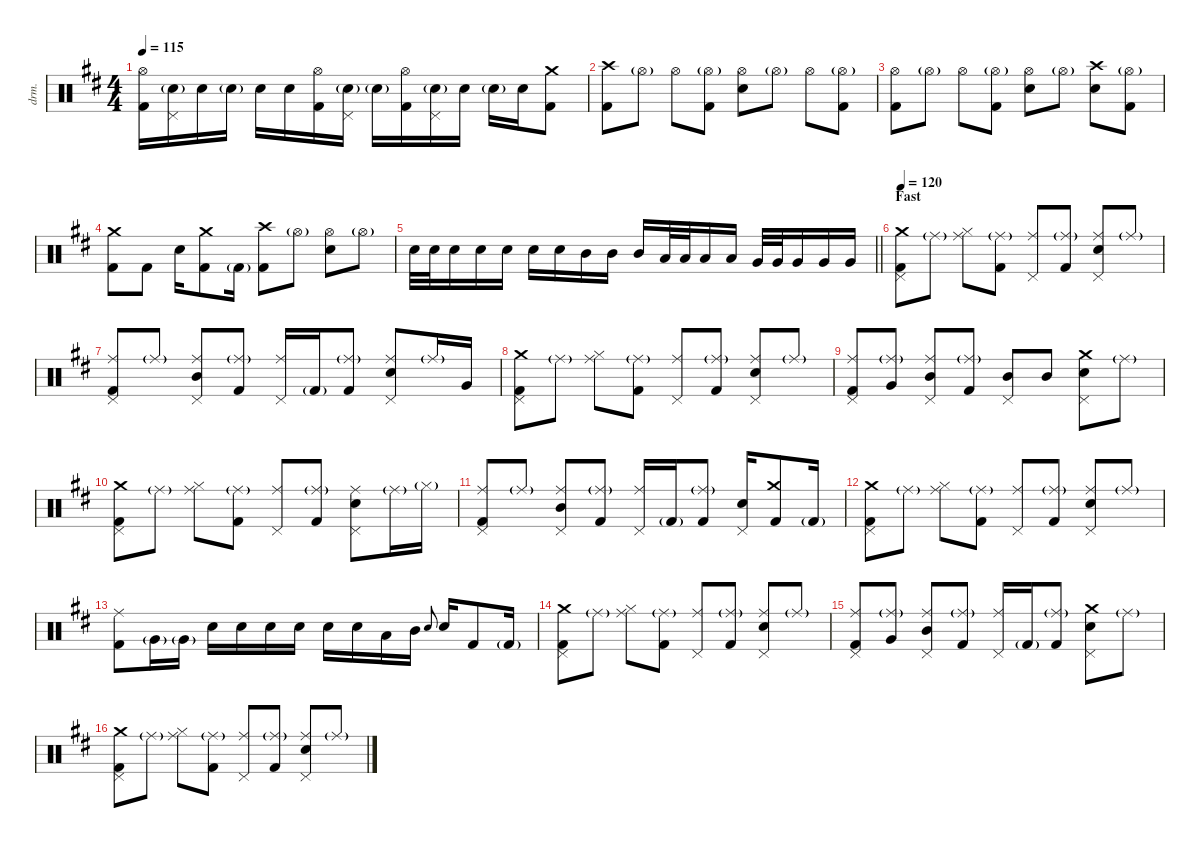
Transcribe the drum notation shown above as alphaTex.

\defaultSystemsLayout 4
\hideDynamics
\bracketExtendMode nobrackets
\track ("Atma Anur" "drm.") {solo instrument percussion}
\staff {score}
\articulation defaults
\ts (4 4)
\tempo 115
\clef neutral
\ks bminor
("Hi-Hat (open)"{acc forcenatural} "Kick (hit) 2"{acc forcenatural}).16{dy fff beam Down} ("Snare (hit) 2"{g acc forcenatural} "Pedal Hi-Hat (hit)"{acc forcenatural}).16{beam Down} "Snare (hit) 2"{acc forcenatural}.16{beam Down} "Snare (hit) 2"{g acc forcenatural}.16{dy ff beam Down} "Snare (hit) 2"{acc forcenatural}.16{dy fff beam Down} "Snare (hit) 2"{acc forcenatural}.16{beam Down} ("Hi-Hat (open)"{acc forcenatural} "Kick (hit) 2"{acc forcenatural}).16{beam Down} ("Snare (hit) 2"{g acc forcenatural} "Pedal Hi-Hat (hit)"{acc forcenatural}).16{beam Down} "Snare (hit) 2"{g acc forcenatural}.16{dy ff beam Down} ("Hi-Hat (open)"{acc forcenatural} "Kick (hit) 2"{acc forcenatural}).16{dy fff beam Down} ("Snare (hit) 2"{g acc forcenatural} "Pedal Hi-Hat (hit)"{acc forcenatural}).16{beam Down} "Snare (hit) 2"{acc forcenatural}.16{beam Down} "Snare (hit) 2"{g acc forcenatural}.16{dy ff beam Down} "Snare (hit) 2"{acc forcenatural}.16{dy fff beam Down} ("Crash medium (hit)"{acc forcenatural} "Kick (hit) 2"{acc forcenatural}).8{beam Down} |
("Crash high (hit)"{acc forcenatural} "Kick (hit) 2"{acc forcenatural}).8{beam Down} "Hi-Hat (open)"{g acc forcenatural}.8{dy ff beam Down} "Hi-Hat (open)"{acc forcenatural}.8{dy fff beam Down} ("Hi-Hat (open)"{g acc forcenatural} "Kick (hit) 2"{acc forcenatural}).8{beam Down} ("Hi-Hat (open)"{acc forcenatural} "Snare (hit) 2"{acc forcenatural}).8{beam Down} "Hi-Hat (open)"{g acc forcenatural}.8{dy ff beam Down} "Hi-Hat (open)"{acc forcenatural}.8{dy fff beam Down} ("Hi-Hat (open)"{g acc forcenatural} "Kick (hit) 2"{acc forcenatural}).8{beam Down} |
("Hi-Hat (open)"{acc forcenatural} "Kick (hit) 2"{acc forcenatural}).8{beam Down} "Hi-Hat (open)"{g acc forcenatural}.8{dy ff beam Down} "Hi-Hat (open)"{acc forcenatural}.8{dy fff beam Down} ("Hi-Hat (open)"{g acc forcenatural} "Kick (hit) 2"{acc forcenatural}).8{beam Down} ("Hi-Hat (open)"{acc forcenatural} "Snare (hit) 2"{acc forcenatural}).8{beam Down} "Hi-Hat (open)"{g acc forcenatural}.8{dy ff beam Down} ("Crash high (hit)"{acc forcenatural} "Snare (hit) 2"{acc forcenatural}).8{dy fff beam Down} ("Hi-Hat (open)"{g acc forcenatural} "Kick (hit) 2"{acc forcenatural}).8{beam Down} |
("Crash medium (hit)"{acc forcenatural} "Kick (hit) 2"{acc forcenatural}).8{beam Down} "Kick (hit) 2"{acc forcenatural}.8{beam Down} "Snare (hit) 2"{acc forcenatural}.16{beam Down} ("Crash medium (hit)"{acc forcenatural} "Kick (hit) 2"{acc forcenatural}).8{beam Down} "Kick (hit) 2"{g acc forcenatural}.16{dy ff beam Down} ("Crash high (hit)"{acc forcenatural} "Kick (hit) 2"{acc forcenatural}).8{dy fff beam Down} "Hi-Hat (open)"{g acc forcenatural}.8{dy ff beam Down} ("Hi-Hat (open)"{acc forcenatural} "Snare (hit) 2"{acc forcenatural}).8{dy fff beam Down} "Hi-Hat (open)"{g acc forcenatural}.8{dy ff beam Down} |
\barLineRight lightlight "Snare (hit) 2"{acc forcenatural}.32{dy fff beam Down} "Snare (hit) 2"{acc forcenatural}.32{beam Down} "Snare (hit) 2"{acc forcenatural}.16{beam Down} "Snare (hit) 2"{acc forcenatural}.16{beam Down} "Snare (hit) 2"{acc forcenatural}.16{beam Down} "Snare (hit) 2"{acc forcenatural}.16{beam Down} "Snare (hit) 2"{acc forcenatural}.16{beam Down} "Mid Tom (hit)"{acc forcenatural}.16{beam Down} "Mid Tom (hit)"{acc forcenatural}.16{beam Down} "Mid Tom (hit)"{acc forcenatural}.16{beam Up} "Low Tom (hit)"{acc forcenatural}.32{beam Up} "Low Tom (hit)"{acc forcenatural}.32{beam Up} "Low Tom (hit)"{acc forcenatural}.16{beam Up} "Low Tom (hit)"{acc forcenatural}.16{beam Up} "Very Low Tom (hit)"{acc forcenatural}.32{beam Up} "Very Low Tom (hit)"{acc forcenatural}.32{beam Up} "Very Low Tom (hit)"{acc forcenatural}.16{beam Up} "Very Low Tom (hit)"{acc forcenatural}.16{beam Up} "Very Low Tom (hit)"{acc forcenatural}.16{beam Up}
|
\section ("" "Fast")
\tempo 120
("Crash medium (hit)"{acc forcenatural} "Pedal Hi-Hat (hit)"{acc forcenatural} "Kick (hit) 2"{acc forcenatural}).8{beam Down} "Ride (middle)"{g acc forcenatural}.8{dy ff beam Down} ("Ride (middle)"{acc forcenatural} "Hi-Hat (closed)"{acc forcenatural}).8{dy fff beam Down} ("Ride (middle)"{g acc forcenatural} "Kick (hit) 2"{acc forcenatural}).8{beam Down} ("Ride (middle)"{acc forcenatural} "Pedal Hi-Hat (hit)"{acc forcenatural}).8{beam Up} ("Ride (middle)"{g acc forcenatural} "Kick (hit) 2"{acc forcenatural}).8{beam Up} ("Ride (middle)"{acc forcenatural} "Snare (hit) 2"{acc forcenatural} "Pedal Hi-Hat (hit)"{acc forcenatural}).8{beam Up} "Ride (middle)"{g acc forcenatural}.8{dy ff beam Up} |
("Ride (middle)"{acc forcenatural} "Pedal Hi-Hat (hit)"{acc forcenatural} "Kick (hit) 2"{acc forcenatural}).8{dy fff beam Up} "Ride (middle)"{g acc forcenatural}.8{dy ff beam Up} ("Ride (middle)"{acc forcenatural} "Mid Tom (hit)"{acc forcenatural} "Pedal Hi-Hat (hit)"{acc forcenatural}).8{dy fff beam Up} ("Ride (middle)"{g acc forcenatural} "Kick (hit) 2"{acc forcenatural}).8{beam Up} ("Ride (middle)"{acc forcenatural} "Pedal Hi-Hat (hit)"{acc forcenatural}).16{beam Up} "Kick (hit) 2"{g acc forcenatural}.16{dy ff beam Up} ("Ride (middle)"{g acc forcenatural} "Kick (hit) 2"{acc forcenatural}).8{dy fff beam Up} ("Ride (middle)"{acc forcenatural} "Snare (hit) 2"{acc forcenatural} "Pedal Hi-Hat (hit)"{acc forcenatural}).8{beam Up} "Ride (middle)"{g acc forcenatural}.16{dy ff beam Up} "Very Low Tom (hit)"{acc forcenatural}.16{dy fff beam Up} |
("Crash medium (hit)"{acc forcenatural} "Pedal Hi-Hat (hit)"{acc forcenatural} "Kick (hit) 2"{acc forcenatural}).8{beam Down} "Ride (middle)"{g acc forcenatural}.8{dy ff beam Down} ("Ride (middle)"{acc forcenatural} "Hi-Hat (closed)"{acc forcenatural}).8{dy fff beam Down} ("Ride (middle)"{g acc forcenatural} "Kick (hit) 2"{acc forcenatural}).8{beam Down} ("Ride (middle)"{acc forcenatural} "Pedal Hi-Hat (hit)"{acc forcenatural}).8{beam Up} ("Ride (middle)"{g acc forcenatural} "Kick (hit) 2"{acc forcenatural}).8{beam Up} ("Ride (middle)"{acc forcenatural} "Snare (hit) 2"{acc forcenatural} "Pedal Hi-Hat (hit)"{acc forcenatural}).8{beam Up} "Ride (middle)"{g acc forcenatural}.8{dy ff beam Up} |
("Ride (middle)"{acc forcenatural} "Pedal Hi-Hat (hit)"{acc forcenatural} "Kick (hit) 2"{acc forcenatural}).8{dy fff beam Up} ("Ride (middle)"{g acc forcenatural} "Very Low Tom (hit)"{acc forcenatural}).8{beam Up} ("Ride (middle)"{acc forcenatural} "Mid Tom (hit)"{acc forcenatural} "Pedal Hi-Hat (hit)"{acc forcenatural}).8{beam Up} ("Ride (middle)"{g acc forcenatural} "Kick (hit) 2"{acc forcenatural}).8{beam Up} ("Mid Tom (hit)"{acc forcenatural} "Pedal Hi-Hat (hit)"{acc forcenatural}).8{beam Up} "Mid Tom (hit)"{acc forcenatural}.8{beam Up} ("Crash medium (hit)"{acc forcenatural} "Snare (hit) 2"{acc forcenatural} "Pedal Hi-Hat (hit)"{acc forcenatural}).8{beam Down} "Ride (middle)"{g acc forcenatural}.8{dy ff beam Down} |
("Crash medium (hit)"{acc forcenatural} "Pedal Hi-Hat (hit)"{acc forcenatural} "Kick (hit) 2"{acc forcenatural}).8{dy fff beam Down} "Ride (middle)"{g acc forcenatural}.8{dy ff beam Down} ("Ride (middle)"{acc forcenatural} "Hi-Hat (closed)"{acc forcenatural}).8{dy fff beam Down} ("Ride (middle)"{g acc forcenatural} "Kick (hit) 2"{acc forcenatural}).8{beam Down} ("Ride (middle)"{acc forcenatural} "Pedal Hi-Hat (hit)"{acc forcenatural}).8{beam Up} ("Ride (middle)"{g acc forcenatural} "Kick (hit) 2"{acc forcenatural}).8{beam Up} ("Ride (middle)"{acc forcenatural} "Snare (hit) 2"{acc forcenatural} "Pedal Hi-Hat (hit)"{acc forcenatural}).8{beam Down} "Ride (middle)"{g acc forcenatural}.16{dy ff beam Down} "Hi-Hat (closed)"{g acc forcenatural}.16{beam Down} |
("Ride (middle)"{acc forcenatural} "Pedal Hi-Hat (hit)"{acc forcenatural} "Kick (hit) 2"{acc forcenatural}).8{dy fff beam Up} "Ride (middle)"{g acc forcenatural}.8{dy ff beam Up} ("Ride (middle)"{acc forcenatural} "Mid Tom (hit)"{acc forcenatural} "Pedal Hi-Hat (hit)"{acc forcenatural}).8{dy fff beam Up} ("Ride (middle)"{g acc forcenatural} "Kick (hit) 2"{acc forcenatural}).8{beam Up} ("Ride (middle)"{acc forcenatural} "Pedal Hi-Hat (hit)"{acc forcenatural}).16{beam Up} "Kick (hit) 2"{g acc forcenatural}.16{dy ff beam Up} ("Ride (middle)"{g acc forcenatural} "Kick (hit) 2"{acc forcenatural}).8{dy fff beam Up} ("Snare (hit) 2"{acc forcenatural} "Pedal Hi-Hat (hit)"{acc forcenatural}).16{beam Up} ("Crash medium (hit)"{acc forcenatural} "Kick (hit) 2"{acc forcenatural}).8{beam Up} "Kick (hit) 2"{g acc forcenatural}.16{dy ff beam Up} |
("Crash medium (hit)"{acc forcenatural} "Pedal Hi-Hat (hit)"{acc forcenatural} "Kick (hit) 2"{acc forcenatural}).8{dy fff beam Down} "Ride (middle)"{g acc forcenatural}.8{dy ff beam Down} ("Ride (middle)"{acc forcenatural} "Hi-Hat (closed)"{acc forcenatural}).8{dy fff beam Down} ("Ride (middle)"{g acc forcenatural} "Kick (hit) 2"{acc forcenatural}).8{beam Down} ("Ride (middle)"{acc forcenatural} "Pedal Hi-Hat (hit)"{acc forcenatural}).8{beam Up} ("Ride (middle)"{g acc forcenatural} "Kick (hit) 2"{acc forcenatural}).8{beam Up} ("Ride (middle)"{acc forcenatural} "Snare (hit) 2"{acc forcenatural} "Pedal Hi-Hat (hit)"{acc forcenatural}).8{beam Up} "Ride (middle)"{g acc forcenatural}.8{dy ff beam Up} |
("Ride (middle)"{acc forcenatural} "Kick (hit) 2"{acc forcenatural}).8{dy fff beam Down} "Very Low Tom (hit)"{g acc forcenatural}.16{dy ff beam Down} "Very Low Tom (hit)"{g acc forcenatural}.16{beam Down} "Snare (hit) 2"{acc forcenatural}.16{dy fff beam Down} "Snare (hit) 2"{acc forcenatural}.16{beam Down} "Snare (hit) 2"{acc forcenatural}.16{beam Down} "Snare (hit) 2"{acc forcenatural}.16{beam Down} "Snare (hit) 2"{acc forcenatural}.16{beam Down} "Snare (hit) 2"{acc forcenatural}.16{beam Down} "Low Tom (hit)"{acc forcenatural}.16{beam Down} "Mid Tom (hit)"{acc forcenatural}.16{beam Down} "Electric Snare (hit)"{acc forcenatural}.8{gr onbeat dy ff beam Up} "Snare (hit) 2"{acc forcenatural}.16{dy fff beam Up} "Kick (hit) 2"{acc forcenatural}.8{beam Up} "Kick (hit) 2"{g acc forcenatural}.16{dy ff beam Up} |
("Crash medium (hit)"{acc forcenatural} "Pedal Hi-Hat (hit)"{acc forcenatural} "Kick (hit) 2"{acc forcenatural}).8{dy fff beam Down} "Ride (middle)"{g acc forcenatural}.8{dy ff beam Down} ("Ride (middle)"{acc forcenatural} "Hi-Hat (closed)"{acc forcenatural}).8{dy fff beam Down} ("Ride (middle)"{g acc forcenatural} "Kick (hit) 2"{acc forcenatural}).8{beam Down} ("Ride (middle)"{acc forcenatural} "Pedal Hi-Hat (hit)"{acc forcenatural}).8{beam Up} ("Ride (middle)"{g acc forcenatural} "Kick (hit) 2"{acc forcenatural}).8{beam Up} ("Ride (middle)"{acc forcenatural} "Snare (hit) 2"{acc forcenatural} "Pedal Hi-Hat (hit)"{acc forcenatural}).8{beam Up} "Ride (middle)"{g acc forcenatural}.8{dy ff beam Up} |
("Ride (middle)"{acc forcenatural} "Pedal Hi-Hat (hit)"{acc forcenatural} "Kick (hit) 2"{acc forcenatural}).8{dy fff beam Up} ("Ride (middle)"{g acc forcenatural} "Very Low Tom (hit)"{acc forcenatural}).8{beam Up} ("Ride (middle)"{acc forcenatural} "Mid Tom (hit)"{acc forcenatural} "Pedal Hi-Hat (hit)"{acc forcenatural}).8{beam Up} ("Ride (middle)"{g acc forcenatural} "Kick (hit) 2"{acc forcenatural}).8{beam Up} ("Ride (middle)"{acc forcenatural} "Pedal Hi-Hat (hit)"{acc forcenatural}).16{beam Up} "Kick (hit) 2"{g acc forcenatural}.16{dy ff beam Up} ("Ride (middle)"{g acc forcenatural} "Kick (hit) 2"{acc forcenatural}).8{dy fff beam Up} ("Crash medium (hit)"{acc forcenatural} "Snare (hit) 2"{acc forcenatural} "Pedal Hi-Hat (hit)"{acc forcenatural}).8{beam Down} "Ride (middle)"{g acc forcenatural}.8{dy ff beam Down} |
("Crash medium (hit)"{acc forcenatural} "Pedal Hi-Hat (hit)"{acc forcenatural} "Kick (hit) 2"{acc forcenatural}).8{dy fff beam Down} "Ride (middle)"{g acc forcenatural}.8{dy ff beam Down} ("Ride (middle)"{acc forcenatural} "Hi-Hat (closed)"{acc forcenatural}).8{dy fff beam Down} ("Ride (middle)"{g acc forcenatural} "Kick (hit) 2"{acc forcenatural}).8{beam Down} ("Ride (middle)"{acc forcenatural} "Pedal Hi-Hat (hit)"{acc forcenatural}).8{beam Up} ("Ride (middle)"{g acc forcenatural} "Kick (hit) 2"{acc forcenatural}).8{beam Up} ("Ride (middle)"{acc forcenatural} "Snare (hit) 2"{acc forcenatural} "Pedal Hi-Hat (hit)"{acc forcenatural}).8{beam Up} "Ride (middle)"{g acc forcenatural}.8{dy ff beam Up}
